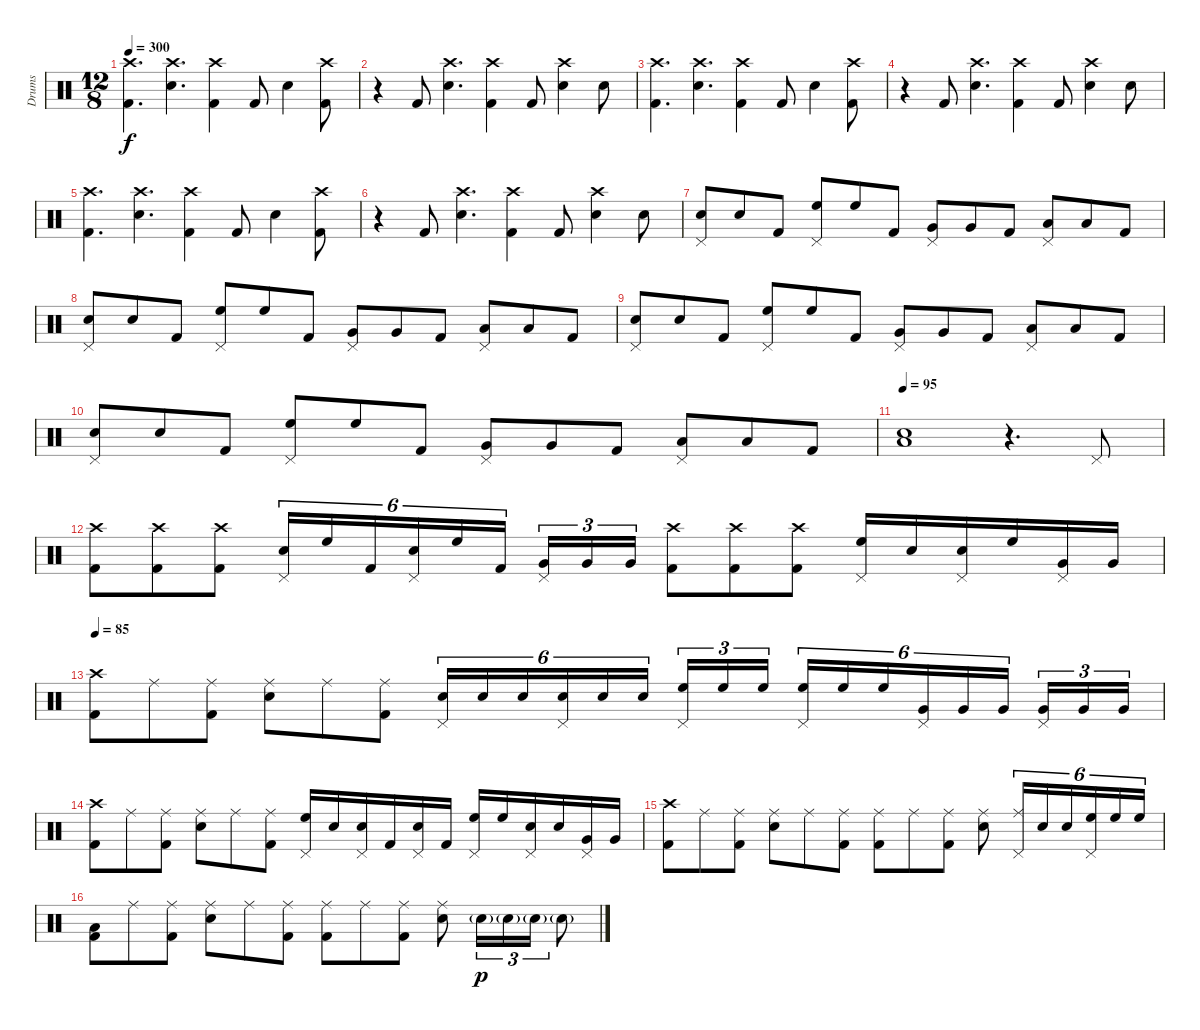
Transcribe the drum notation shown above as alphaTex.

\track ("Drums" "Drums") {instrument percussion}
\staff {score}
\articulation defaults
\ts (12 8)
\tempo 300
\clef neutral
\ks c
("Crash high (hit)" "Kick (hit) 2").4{d dy f} ("Crash high (hit)" "Electric Snare (hit)").4{d} ("Crash high (hit)" "Kick (hit) 2").4 "Kick (hit) 2".8 "Electric Snare (hit)".4 ("Crash high (hit)" "Kick (hit) 2").8 |
r.4 "Kick (hit) 2".8 ("Crash high (hit)" "Electric Snare (hit)").4{d} ("Crash high (hit)" "Kick (hit) 2").4 "Kick (hit) 2".8 ("Crash high (hit)" "Electric Snare (hit)").4 "Electric Snare (hit)".8 |
("Crash high (hit)" "Kick (hit) 2").4{d} ("Crash high (hit)" "Electric Snare (hit)").4{d} ("Crash high (hit)" "Kick (hit) 2").4 "Kick (hit) 2".8 "Electric Snare (hit)".4 ("Crash high (hit)" "Kick (hit) 2").8 |
r.4 "Kick (hit) 2".8 ("Crash high (hit)" "Electric Snare (hit)").4{d} ("Crash high (hit)" "Kick (hit) 2").4 "Kick (hit) 2".8 ("Crash high (hit)" "Electric Snare (hit)").4 "Electric Snare (hit)".8 |
("Crash high (hit)" "Kick (hit) 2").4{d} ("Crash high (hit)" "Electric Snare (hit)").4{d} ("Crash high (hit)" "Kick (hit) 2").4 "Kick (hit) 2".8 "Electric Snare (hit)".4 ("Crash high (hit)" "Kick (hit) 2").8 |
r.4 "Kick (hit) 2".8 ("Crash high (hit)" "Electric Snare (hit)").4{d} ("Crash high (hit)" "Kick (hit) 2").4 "Kick (hit) 2".8 ("Crash high (hit)" "Electric Snare (hit)").4 "Electric Snare (hit)".8 |
("Pedal Hi-Hat (hit)" "Electric Snare (hit)").8 "Electric Snare (hit)".8 "Kick (hit) 2".8 ("Pedal Hi-Hat (hit)" "High Floor Tom (hit)").8 "High Floor Tom (hit)".8 "Kick (hit) 2".8 ("Pedal Hi-Hat (hit)" "Very Low Tom (hit)").8 "Very Low Tom (hit)".8 "Kick (hit) 2".8 ("Pedal Hi-Hat (hit)" "Low Floor Tom (hit)").8 "Low Floor Tom (hit)".8 "Kick (hit) 2".8 |
("Pedal Hi-Hat (hit)" "Electric Snare (hit)").8 "Electric Snare (hit)".8 "Kick (hit) 2".8 ("Pedal Hi-Hat (hit)" "High Floor Tom (hit)").8 "High Floor Tom (hit)".8 "Kick (hit) 2".8 ("Pedal Hi-Hat (hit)" "Very Low Tom (hit)").8 "Very Low Tom (hit)".8 "Kick (hit) 2".8 ("Pedal Hi-Hat (hit)" "Low Floor Tom (hit)").8 "Low Floor Tom (hit)".8 "Kick (hit) 2".8 |
("Pedal Hi-Hat (hit)" "Electric Snare (hit)").8 "Electric Snare (hit)".8 "Kick (hit) 2".8 ("Pedal Hi-Hat (hit)" "High Floor Tom (hit)").8 "High Floor Tom (hit)".8 "Kick (hit) 2".8 ("Pedal Hi-Hat (hit)" "Very Low Tom (hit)").8 "Very Low Tom (hit)".8 "Kick (hit) 2".8 ("Pedal Hi-Hat (hit)" "Low Floor Tom (hit)").8 "Low Floor Tom (hit)".8 "Kick (hit) 2".8 |
("Pedal Hi-Hat (hit)" "Electric Snare (hit)").8 "Electric Snare (hit)".8 "Kick (hit) 2".8 ("Pedal Hi-Hat (hit)" "High Floor Tom (hit)").8 "High Floor Tom (hit)".8 "Kick (hit) 2".8 ("Pedal Hi-Hat (hit)" "Very Low Tom (hit)").8 "Very Low Tom (hit)".8 "Kick (hit) 2".8 ("Pedal Hi-Hat (hit)" "Low Floor Tom (hit)").8 "Low Floor Tom (hit)".8 "Kick (hit) 2".8 |
\tempo 95
("Low Floor Tom (hit)" "Electric Snare (hit)").1 r.4{d} "Pedal Hi-Hat (hit)".8 |
("Crash high (hit)" "Kick (hit) 2").8 ("Crash high (hit)" "Kick (hit) 2").8 ("Crash high (hit)" "Kick (hit) 2").8 ("Pedal Hi-Hat (hit)" "Snare (hit) 2").16{tu (6 4)} "High Floor Tom (hit)".16{tu (6 4)} "Kick (hit) 2".16{tu (6 4)} ("Pedal Hi-Hat (hit)" "Snare (hit) 2").16{tu (6 4)} "High Floor Tom (hit)".16{tu (6 4)} "Kick (hit) 2".16{tu (6 4)} ("Pedal Hi-Hat (hit)" "Very Low Tom (hit)").16{tu (3 2)} "Very Low Tom (hit)".16{tu (3 2)} "Very Low Tom (hit)".16{tu (3 2)} ("Crash high (hit)" "Kick (hit) 2").8 ("Crash high (hit)" "Kick (hit) 2").8 ("Crash high (hit)" "Kick (hit) 2").8 ("Pedal Hi-Hat (hit)" "High Floor Tom (hit)").16 "Snare (hit) 2".16 ("Pedal Hi-Hat (hit)" "Snare (hit) 2").16 "High Floor Tom (hit)".16 ("Pedal Hi-Hat (hit)" "Very Low Tom (hit)").16 "Very Low Tom (hit)".16 |
\tempo 85
("Crash high (hit)" "Kick (hit) 2").8 "Ride (middle)".8 ("Ride (middle)" "Kick (hit) 2").8 ("Ride (middle)" "Snare (hit) 2").8 "Ride (middle)".8 ("Ride (middle)" "Kick (hit) 2").8 ("Pedal Hi-Hat (hit)" "Snare (hit) 2").16{tu (6 4)} "Snare (hit) 2".16{tu (6 4)} "Snare (hit) 2".16{tu (6 4)} ("Pedal Hi-Hat (hit)" "Snare (hit) 2").16{tu (6 4)} "Snare (hit) 2".16{tu (6 4)} "Snare (hit) 2".16{tu (6 4)} ("Pedal Hi-Hat (hit)" "High Floor Tom (hit)").16{tu (3 2)} "High Floor Tom (hit)".16{tu (3 2)} "High Floor Tom (hit)".16{tu (3 2)} ("Pedal Hi-Hat (hit)" "High Floor Tom (hit)").16{tu (6 4)} "High Floor Tom (hit)".16{tu (6 4)} "High Floor Tom (hit)".16{tu (6 4)} ("Pedal Hi-Hat (hit)" "Very Low Tom (hit)").16{tu (6 4)} "Very Low Tom (hit)".16{tu (6 4)} "Very Low Tom (hit)".16{tu (6 4)} ("Pedal Hi-Hat (hit)" "Very Low Tom (hit)").16{tu (3 2)} "Very Low Tom (hit)".16{tu (3 2)} "Very Low Tom (hit)".16{tu (3 2)} |
("Crash high (hit)" "Kick (hit) 2").8 "Ride (middle)".8 ("Ride (middle)" "Kick (hit) 2").8 ("Ride (middle)" "Snare (hit) 2").8 "Ride (middle)".8 ("Ride (middle)" "Kick (hit) 2").8 ("Pedal Hi-Hat (hit)" "High Floor Tom (hit)").16 "Snare (hit) 2".16 ("Pedal Hi-Hat (hit)" "Snare (hit) 2").16 "Kick (hit) 2".16 ("Pedal Hi-Hat (hit)" "Snare (hit) 2").16 "Kick (hit) 2".16 ("Pedal Hi-Hat (hit)" "High Floor Tom (hit)").16 "High Floor Tom (hit)".16 ("Pedal Hi-Hat (hit)" "Snare (hit) 2").16 "Snare (hit) 2".16 ("Pedal Hi-Hat (hit)" "Very Low Tom (hit)").16 "Very Low Tom (hit)".16 |
("Crash high (hit)" "Kick (hit) 2").8 "Ride (middle)".8 ("Ride (middle)" "Kick (hit) 2").8 ("Ride (middle)" "Snare (hit) 2").8 "Ride (middle)".8 ("Ride (middle)" "Kick (hit) 2").8 ("Ride (middle)" "Kick (hit) 2").8 "Ride (middle)".8 ("Ride (middle)" "Kick (hit) 2").8 ("Ride (middle)" "Snare (hit) 2").8 ("Pedal Hi-Hat (hit)" "Ride (middle)").16{tu (6 4)} "Snare (hit) 2".16{tu (6 4)} "Snare (hit) 2".16{tu (6 4)} ("Pedal Hi-Hat (hit)" "High Floor Tom (hit)").16{tu (6 4)} "High Floor Tom (hit)".16{tu (6 4)} "High Floor Tom (hit)".16{tu (6 4)} |
("Low Floor Tom (hit)" "Kick (hit) 2").8 "Ride (middle)".8 ("Ride (middle)" "Kick (hit) 2").8 ("Ride (middle)" "Snare (hit) 2").8 "Ride (middle)".8 ("Ride (middle)" "Kick (hit) 2").8 ("Ride (middle)" "Kick (hit) 2").8 "Ride (middle)".8 ("Ride (middle)" "Kick (hit) 2").8 ("Ride (middle)" "Snare (hit) 2").8 "Snare (hit) 2"{g}.16{tu (3 2) dy p} "Snare (hit) 2"{g}.16{tu (3 2)} "Snare (hit) 2"{g}.16{tu (3 2)} "Snare (hit) 2"{g}.8
